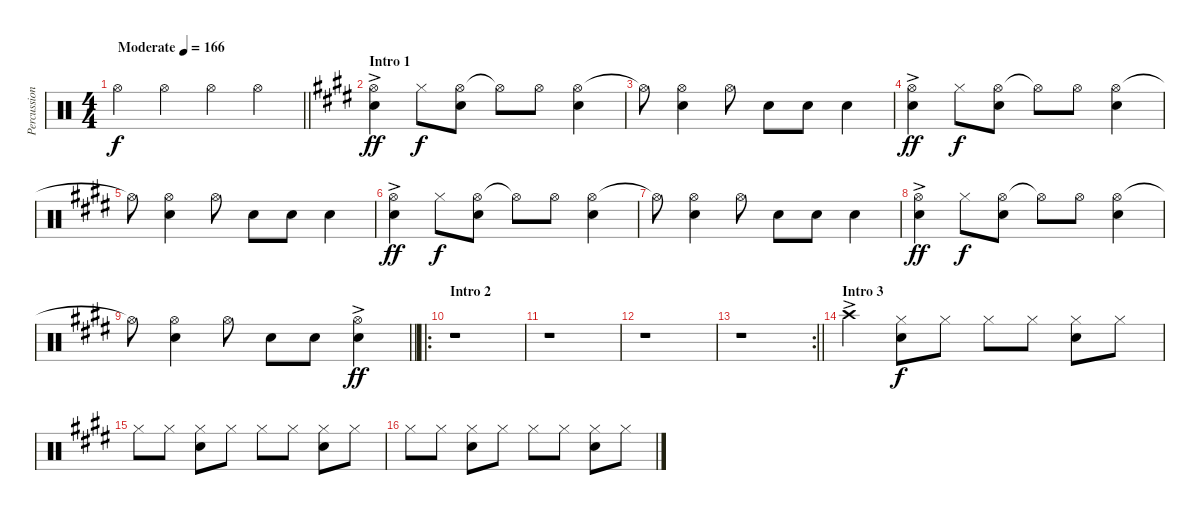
\track ("Percussion - Other" "Percussion") {instrument percussion}
\staff {score}
\articulation defaults
\ts (4 4)
\tempo (166 "Moderate")
\clef neutral
\barLineRight lightlight
\ks c "Hi-Hat (open)".4{dy f} "Hi-Hat (open)".4 "Hi-Hat (open)".4 "Hi-Hat (open)".4
|
\section ("" "Intro 1")
\ks e
("Hi-Hat (open)"{ac} "Snare (hit) 2").4{dy ff} "Hi-Hat (closed)".8{dy f} ("Hi-Hat (open)" "Snare (hit) 2").8 "Hi-Hat (open)"{t}.8 "Hi-Hat (open)".8 ("Hi-Hat (open)" "Snare (hit) 2").4 |
"Hi-Hat (open)"{t}.8 ("Hi-Hat (open)" "Snare (hit) 2").4 "Hi-Hat (open)".8 "Snare (hit) 2".8 "Snare (hit) 2".8 "Snare (hit) 2".4 |
("Hi-Hat (open)"{ac} "Snare (hit) 2").4{dy ff} "Hi-Hat (closed)".8{dy f} ("Hi-Hat (open)" "Snare (hit) 2").8 "Hi-Hat (open)"{t}.8 "Hi-Hat (open)".8 ("Hi-Hat (open)" "Snare (hit) 2").4 |
"Hi-Hat (open)"{t}.8 ("Hi-Hat (open)" "Snare (hit) 2").4 "Hi-Hat (open)".8 "Snare (hit) 2".8 "Snare (hit) 2".8 "Snare (hit) 2".4 |
("Hi-Hat (open)"{ac} "Snare (hit) 2").4{dy ff} "Hi-Hat (closed)".8{dy f} ("Hi-Hat (open)" "Snare (hit) 2").8 "Hi-Hat (open)"{t}.8 "Hi-Hat (open)".8 ("Hi-Hat (open)" "Snare (hit) 2").4 |
"Hi-Hat (open)"{t}.8 ("Hi-Hat (open)" "Snare (hit) 2").4 "Hi-Hat (open)".8 "Snare (hit) 2".8 "Snare (hit) 2".8 "Snare (hit) 2".4 |
("Hi-Hat (open)"{ac} "Snare (hit) 2").4{dy ff} "Hi-Hat (closed)".8{dy f} ("Hi-Hat (open)" "Snare (hit) 2").8 "Hi-Hat (open)"{t}.8 "Hi-Hat (open)".8 ("Hi-Hat (open)" "Snare (hit) 2").4 |
\barLineRight lightlight "Hi-Hat (open)"{t}.8
("Hi-Hat (open)" "Snare (hit) 2").4 "Hi-Hat (open)".8 "Snare (hit) 2".8 "Snare (hit) 2".8 ("Hi-Hat (open)"{ac} "Snare (hit) 2").4{dy ff} |
\ro
\section ("" "Intro 2")
r.1 |
r.1 |
r.1 |
\rc 2
\barLineRight lightlight
r.1 |
\section ("" "Intro 3")
"Crash high (hit)"{ac}.4 ("Hi-Hat (closed)" "Snare (hit) 2").8{dy f} "Hi-Hat (closed)".8 "Hi-Hat (closed)".8 "Hi-Hat (closed)".8 ("Hi-Hat (closed)" "Snare (hit) 2").8 "Hi-Hat (closed)".8 |
"Hi-Hat (closed)".8 "Hi-Hat (closed)".8 ("Hi-Hat (closed)" "Snare (hit) 2").8 "Hi-Hat (closed)".8 "Hi-Hat (closed)".8 "Hi-Hat (closed)".8 ("Hi-Hat (closed)" "Snare (hit) 2").8 "Hi-Hat (closed)".8 |
"Hi-Hat (closed)".8 "Hi-Hat (closed)".8 ("Hi-Hat (closed)" "Snare (hit) 2").8 "Hi-Hat (closed)".8 "Hi-Hat (closed)".8 "Hi-Hat (closed)".8 ("Hi-Hat (closed)" "Snare (hit) 2").8 "Hi-Hat (closed)".8
